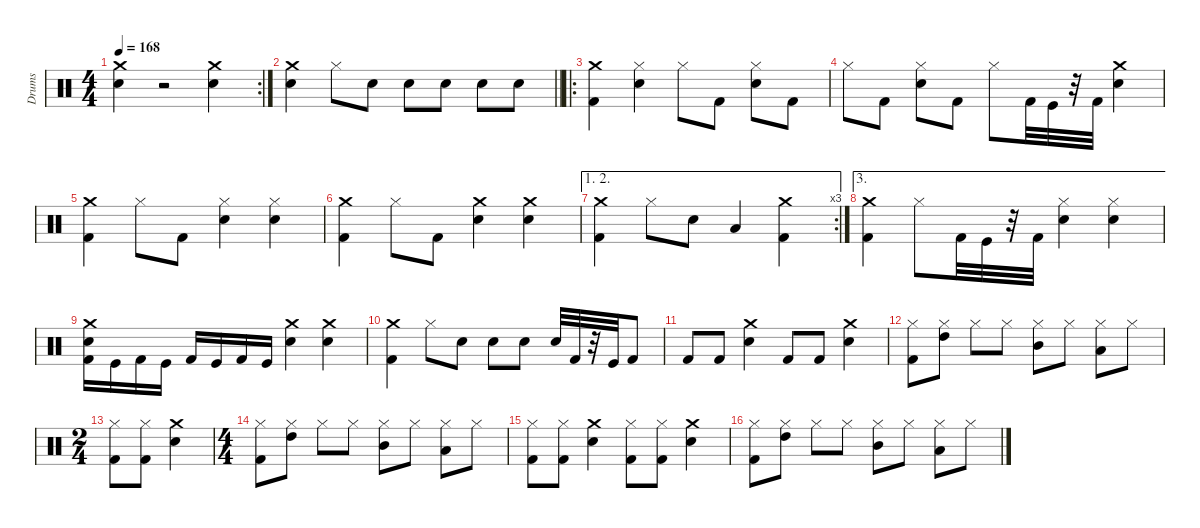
\defaultSystemsLayout 4
\hideDynamics
\bracketExtendMode nobrackets
\firstSystemTrackNameMode fullname
\otherSystemsTrackNameOrientation horizontal
\track ("Drums" "drm.") {instrument percussion}
\staff {score}
\articulation defaults
\rc 2
\ts (4 4)
\tempo 168
\clef neutral
\ks c
("Snare (hit) 2" "Crash medium (hit)").4{dy fff beam Down} r.2{beam Down} ("Crash medium (hit)" "Snare (hit) 2").4{beam Down} |
\barLineRight lightlight
("Snare (hit) 2" "Crash medium (hit)").4{beam Down} "Hi-Hat (closed)".8{beam Down} "Snare (hit) 2".8{beam Down} "Snare (hit) 2".8{beam Down} "Snare (hit) 2".8{beam Down} "Snare (hit) 2".8{beam Down} "Snare (hit) 2".8{beam Down} |
\ro
("Kick (hit) 2" "Crash medium (hit)").4{beam Down} ("Hi-Hat (closed)" "Snare (hit) 2").4{beam Down} "Hi-Hat (closed)".8{beam Down} "Kick (hit) 2".8{beam Down} ("Snare (hit) 2" "Hi-Hat (closed)").8{beam Down} "Kick (hit) 2".8{beam Down} |
"Hi-Hat (closed)".8{beam Down} "Kick (hit) 2".8{beam Down} ("Snare (hit) 2" "Hi-Hat (closed)").8{beam Down} "Kick (hit) 2".8{beam Down} "Hi-Hat (closed)".8{beam Down} "Kick (hit) 2".32{beam Down} "Kick (hit)".32{beam Down} r.32{beam Down} "Kick (hit) 2".32{beam Down} ("Crash medium (hit)" "Snare (hit) 2").4{beam Down} |
("Kick (hit) 2" "Crash medium (hit)").4{beam Down} "Hi-Hat (closed)".8{beam Down} "Kick (hit) 2".8{beam Down} ("Snare (hit) 2" "Hi-Hat (closed)").4{beam Down} ("Hi-Hat (closed)" "Snare (hit) 2").4{beam Down} |
("Kick (hit) 2" "Crash medium (hit)").4{beam Down} "Hi-Hat (closed)".8{beam Down} "Kick (hit) 2".8{beam Down} ("Crash medium (hit)" "Snare (hit) 2").4{beam Down} ("Snare (hit) 2" "Crash medium (hit)").4{beam Down} |
\ae (1 2)
\rc 3
("Kick (hit) 2" "Crash medium (hit)").4{beam Down} "Hi-Hat (closed)".8{beam Down} "Snare (hit) 2".8{beam Down} "Low Tom (hit)".4{beam Up} ("Kick (hit) 2" "Crash medium (hit)").4{beam Down} |
\ae 3
("Kick (hit) 2" "Crash medium (hit)").4{beam Down} "Hi-Hat (closed)".8{beam Down} "Kick (hit) 2".32{beam Down} "Kick (hit)".32{beam Down} r.32{beam Down} "Kick (hit) 2".32{beam Down} ("Snare (hit) 2" "Hi-Hat (closed)").4{beam Down} ("Hi-Hat (closed)" "Snare (hit) 2").4{beam Down} |
("Kick (hit) 2" "Snare (hit) 2" "Crash medium (hit)").16{beam Down} "Kick (hit)".16{beam Down} "Kick (hit) 2".16{beam Down} "Kick (hit)".16{beam Down} "Kick (hit) 2".16{beam Up} "Kick (hit)".16{beam Up} "Kick (hit) 2".16{beam Up} "Kick (hit)".16{beam Up} ("Crash medium (hit)" "Snare (hit) 2").4{beam Down} ("Snare (hit) 2" "Crash medium (hit)").4{beam Down} |
("Kick (hit) 2" "Crash medium (hit)").4{beam Down} "Hi-Hat (closed)".8{beam Down} "Snare (hit) 2".8{beam Down} "Snare (hit) 2".8{beam Down} "Snare (hit) 2".8{beam Down} "Snare (hit) 2".32{beam Up} "Kick (hit) 2".32{beam Up} r.32{beam Up} "Kick (hit)".32{beam Up} "Kick (hit) 2".8{beam Up} |
"Kick (hit) 2".8{beam Up} "Kick (hit) 2".8{beam Up} ("Snare (hit) 2" "Crash medium (hit)").4{beam Down} "Kick (hit) 2".8{beam Up} "Kick (hit) 2".8{beam Up} ("Crash medium (hit)" "Snare (hit) 2").4{beam Down} |
("Hi-Hat (closed)" "Kick (hit) 2").8{beam Down} ("High Tom (hit)" "Hi-Hat (closed)").8{beam Down} "Hi-Hat (closed)".8{beam Down} "Hi-Hat (closed)".8{beam Down} ("Mid Tom (hit)" "Hi-Hat (closed)").8{beam Down} "Hi-Hat (closed)".8{beam Down} ("Low Tom (hit)" "Hi-Hat (closed)").8{beam Down} "Hi-Hat (closed)".8{beam Down} |
\ts (2 4)
\beaming (8 2 2)
("Kick (hit) 2" "Hi-Hat (closed)").8{beam Down} ("Kick (hit) 2" "Hi-Hat (closed)").8{beam Down} ("Snare (hit) 2" "Crash medium (hit)").4{beam Down} |
\ts (4 4)
\beaming (8 2 2 2 2)
("Hi-Hat (closed)" "Kick (hit) 2").8{beam Down} ("High Tom (hit)" "Hi-Hat (closed)").8{beam Down} "Hi-Hat (closed)".8{beam Down} "Hi-Hat (closed)".8{beam Down} ("Mid Tom (hit)" "Hi-Hat (closed)").8{beam Down} "Hi-Hat (closed)".8{beam Down} ("Hi-Hat (closed)" "Low Tom (hit)").8{beam Down} "Hi-Hat (closed)".8{beam Down} |
("Hi-Hat (closed)" "Kick (hit) 2").8{beam Down} ("Hi-Hat (closed)" "Kick (hit) 2").8{beam Down} ("Snare (hit) 2" "Crash medium (hit)").4{beam Down} ("Kick (hit) 2" "Hi-Hat (closed)").8{beam Down} ("Kick (hit) 2" "Hi-Hat (closed)").8{beam Down} ("Crash medium (hit)" "Snare (hit) 2").4{beam Down} |
("Hi-Hat (closed)" "Kick (hit) 2").8{beam Down} ("High Tom (hit)" "Hi-Hat (closed)").8{beam Down} "Hi-Hat (closed)".8{beam Down} "Hi-Hat (closed)".8{beam Down} ("Mid Tom (hit)" "Hi-Hat (closed)").8{beam Down} "Hi-Hat (closed)".8{beam Down} ("Low Tom (hit)" "Hi-Hat (closed)").8{beam Down} "Hi-Hat (closed)".8{beam Down}
